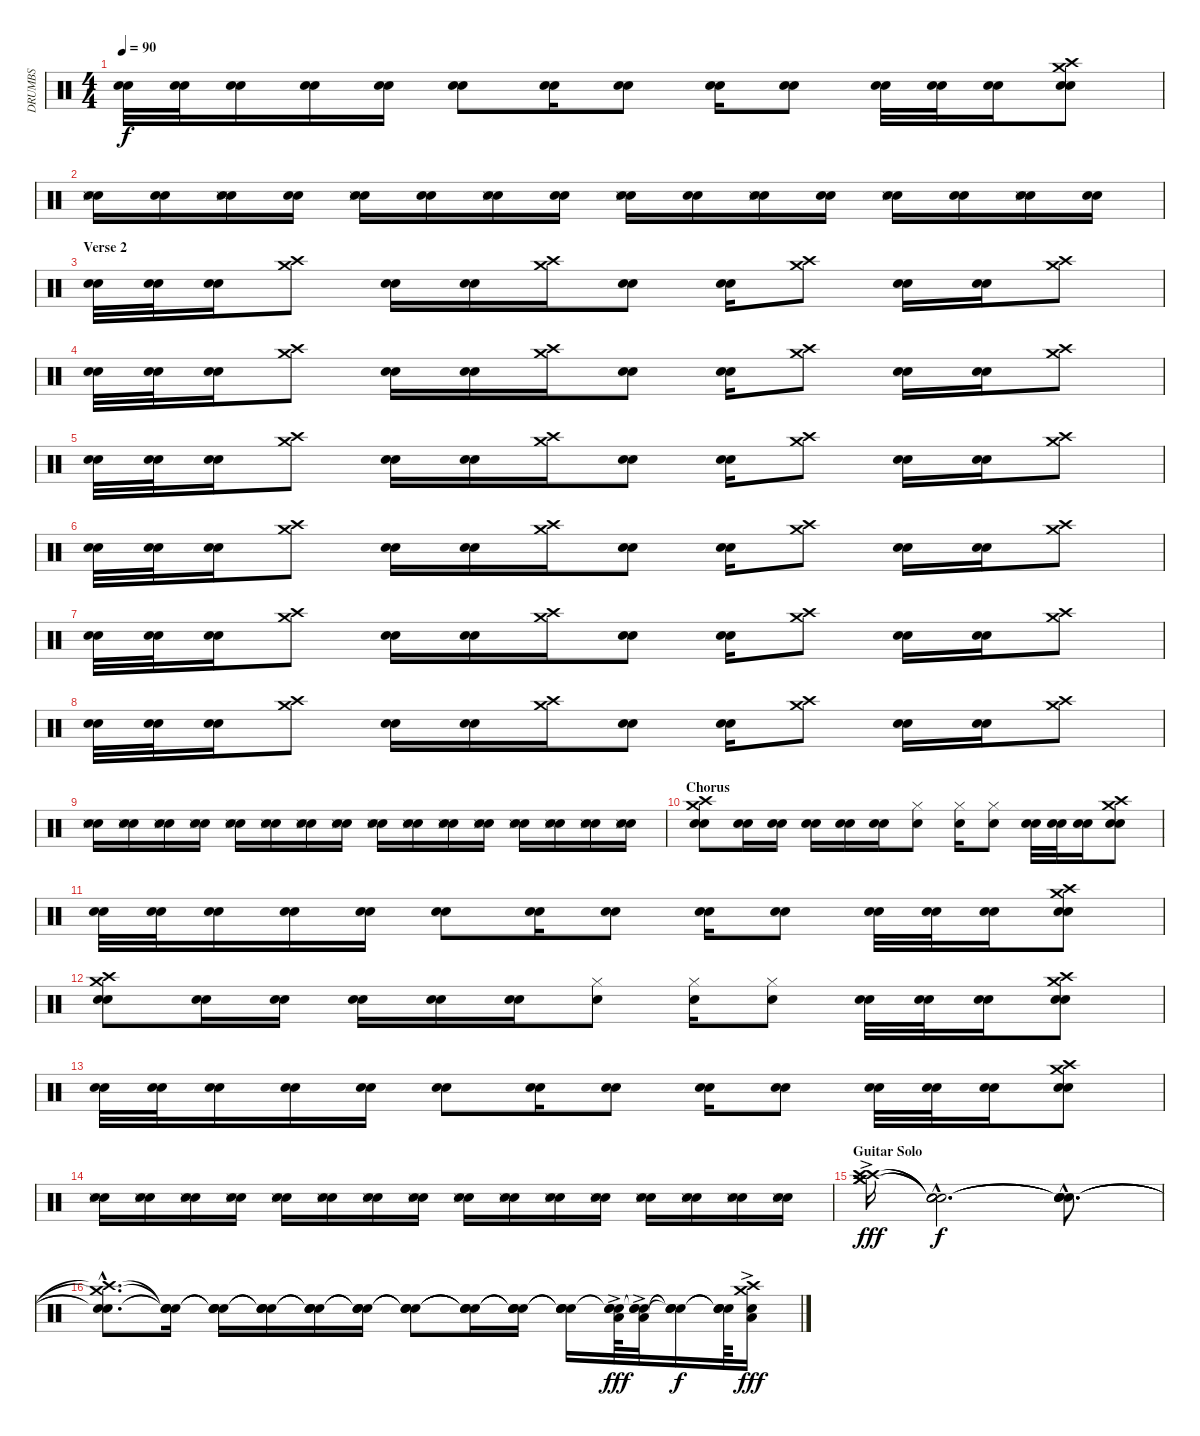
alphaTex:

\track ("DRUMBS" "DRUMBS") {instrument percussion}
\staff {score}
\articulation defaults
\ts (4 4)
\tempo 90
\clef neutral
\ks c
("Electric Snare (hit)" "Snare (hit) 2").32{dy f} ("Electric Snare (hit)" "Snare (hit) 2").32 ("Electric Snare (hit)" "Snare (hit) 2").16 ("Electric Snare (hit)" "Snare (hit) 2").16 ("Electric Snare (hit)" "Snare (hit) 2").16 ("Electric Snare (hit)" "Snare (hit) 2").8 ("Electric Snare (hit)" "Snare (hit) 2").16 ("Electric Snare (hit)" "Snare (hit) 2").8 ("Electric Snare (hit)" "Snare (hit) 2").16 ("Electric Snare (hit)" "Snare (hit) 2").8 ("Electric Snare (hit)" "Snare (hit) 2").32 ("Electric Snare (hit)" "Snare (hit) 2").32 ("Electric Snare (hit)" "Snare (hit) 2").16 ("Electric Snare (hit)" "Snare (hit) 2" "Crash medium (hit)" "Crash high (hit)").8 |
("Electric Snare (hit)" "Snare (side stick) 3" "Snare (hit) 2").16 ("Electric Snare (hit)" "Snare (hit) 2").16 ("Electric Snare (hit)" "Snare (side stick) 3" "Snare (hit) 2").16 ("Electric Snare (hit)" "Snare (hit) 2").16 ("Electric Snare (hit)" "Snare (side stick) 3" "Snare (hit) 2").16 ("Electric Snare (hit)" "Snare (hit) 2").16 ("Electric Snare (hit)" "Snare (side stick) 3" "Snare (hit) 2").16 ("Electric Snare (hit)" "Snare (hit) 2").16 ("Electric Snare (hit)" "Snare (side stick) 3" "Snare (hit) 2").16 ("Electric Snare (hit)" "Snare (hit) 2").16 ("Electric Snare (hit)" "Snare (side stick) 3" "Snare (hit) 2").16 ("Electric Snare (hit)" "Snare (hit) 2").16 ("Electric Snare (hit)" "Snare (side stick) 3" "Snare (hit) 2").16 ("Electric Snare (hit)" "Snare (hit) 2").16 ("Electric Snare (hit)" "Snare (side stick) 3" "Snare (hit) 2").16 ("Electric Snare (hit)" "Snare (hit) 2").16 |
\section ("" "Verse 2")
("Electric Snare (hit)" "Snare (hit) 2").32 ("Electric Snare (hit)" "Snare (hit) 2").32 ("Electric Snare (hit)" "Snare (hit) 2").16 ("Crash medium (hit)" "Crash high (hit)").8 ("Electric Snare (hit)" "Snare (hit) 2").16 ("Electric Snare (hit)" "Snare (hit) 2").16 ("Crash medium (hit)" "Crash high (hit)").16 ("Electric Snare (hit)" "Snare (hit) 2").8 ("Electric Snare (hit)" "Snare (hit) 2").16 ("Crash medium (hit)" "Crash high (hit)").8 ("Electric Snare (hit)" "Snare (hit) 2").16 ("Electric Snare (hit)" "Snare (hit) 2").16 ("Crash medium (hit)" "Crash high (hit)").8 |
("Electric Snare (hit)" "Snare (hit) 2").32 ("Electric Snare (hit)" "Snare (hit) 2").32 ("Electric Snare (hit)" "Snare (hit) 2").16 ("Crash medium (hit)" "Crash high (hit)").8 ("Electric Snare (hit)" "Snare (hit) 2").16 ("Electric Snare (hit)" "Snare (hit) 2").16 ("Crash medium (hit)" "Crash high (hit)").16 ("Electric Snare (hit)" "Snare (hit) 2").8 ("Electric Snare (hit)" "Snare (hit) 2").16 ("Crash medium (hit)" "Crash high (hit)").8 ("Electric Snare (hit)" "Snare (hit) 2").16 ("Electric Snare (hit)" "Snare (hit) 2").16 ("Crash medium (hit)" "Crash high (hit)").8 |
("Electric Snare (hit)" "Snare (hit) 2").32 ("Electric Snare (hit)" "Snare (hit) 2").32 ("Electric Snare (hit)" "Snare (hit) 2").16 ("Crash medium (hit)" "Crash high (hit)").8 ("Electric Snare (hit)" "Snare (hit) 2").16 ("Electric Snare (hit)" "Snare (hit) 2").16 ("Crash medium (hit)" "Crash high (hit)").16 ("Electric Snare (hit)" "Snare (hit) 2").8 ("Electric Snare (hit)" "Snare (hit) 2").16 ("Crash medium (hit)" "Crash high (hit)").8 ("Electric Snare (hit)" "Snare (hit) 2").16 ("Electric Snare (hit)" "Snare (hit) 2").16 ("Crash medium (hit)" "Crash high (hit)").8 |
("Electric Snare (hit)" "Snare (hit) 2").32 ("Electric Snare (hit)" "Snare (hit) 2").32 ("Electric Snare (hit)" "Snare (hit) 2").16 ("Crash medium (hit)" "Crash high (hit)").8 ("Electric Snare (hit)" "Snare (hit) 2").16 ("Electric Snare (hit)" "Snare (hit) 2").16 ("Crash medium (hit)" "Crash high (hit)").16 ("Electric Snare (hit)" "Snare (hit) 2").8 ("Electric Snare (hit)" "Snare (hit) 2").16 ("Crash medium (hit)" "Crash high (hit)").8 ("Electric Snare (hit)" "Snare (hit) 2").16 ("Electric Snare (hit)" "Snare (hit) 2").16 ("Crash medium (hit)" "Crash high (hit)").8 |
("Electric Snare (hit)" "Snare (hit) 2").32 ("Electric Snare (hit)" "Snare (hit) 2").32 ("Electric Snare (hit)" "Snare (hit) 2").16 ("Crash medium (hit)" "Crash high (hit)").8 ("Electric Snare (hit)" "Snare (hit) 2").16 ("Electric Snare (hit)" "Snare (hit) 2").16 ("Crash medium (hit)" "Crash high (hit)").16 ("Electric Snare (hit)" "Snare (hit) 2").8 ("Electric Snare (hit)" "Snare (hit) 2").16 ("Crash medium (hit)" "Crash high (hit)").8 ("Electric Snare (hit)" "Snare (hit) 2").16 ("Electric Snare (hit)" "Snare (hit) 2").16 ("Crash medium (hit)" "Crash high (hit)").8 |
("Electric Snare (hit)" "Snare (hit) 2").32 ("Electric Snare (hit)" "Snare (hit) 2").32 ("Electric Snare (hit)" "Snare (hit) 2").16 ("Crash medium (hit)" "Crash high (hit)").8 ("Electric Snare (hit)" "Snare (hit) 2").16 ("Electric Snare (hit)" "Snare (hit) 2").16 ("Crash medium (hit)" "Crash high (hit)").16 ("Electric Snare (hit)" "Snare (hit) 2").8 ("Electric Snare (hit)" "Snare (hit) 2").16 ("Crash medium (hit)" "Crash high (hit)").8 ("Electric Snare (hit)" "Snare (hit) 2").16 ("Electric Snare (hit)" "Snare (hit) 2").16 ("Crash medium (hit)" "Crash high (hit)").8 |
("Electric Snare (hit)" "Snare (side stick) 3" "Snare (hit) 2").16 ("Electric Snare (hit)" "Snare (side stick) 3" "Snare (hit) 2").16 ("Electric Snare (hit)" "Snare (side stick) 3" "Snare (hit) 2").16 ("Electric Snare (hit)" "Snare (side stick) 3" "Snare (hit) 2").16 ("Electric Snare (hit)" "Snare (side stick) 3" "Snare (hit) 2").16 ("Electric Snare (hit)" "Snare (side stick) 3" "Snare (hit) 2").16 ("Electric Snare (hit)" "Snare (side stick) 3" "Snare (hit) 2").16 ("Electric Snare (hit)" "Snare (side stick) 3" "Snare (hit) 2").16 ("Electric Snare (hit)" "Snare (side stick) 3" "Snare (hit) 2").16 ("Electric Snare (hit)" "Snare (side stick) 3" "Snare (hit) 2").16 ("Electric Snare (hit)" "Snare (side stick) 3" "Snare (hit) 2").16 ("Electric Snare (hit)" "Snare (side stick) 3" "Snare (hit) 2").16 ("Electric Snare (hit)" "Snare (side stick) 3" "Snare (hit) 2").16 ("Electric Snare (hit)" "Snare (side stick) 3" "Snare (hit) 2").16 ("Electric Snare (hit)" "Snare (side stick) 3" "Snare (hit) 2").16 ("Electric Snare (hit)" "Snare (side stick) 3" "Snare (hit) 2").16 |
\section ("" "Chorus")
("Electric Snare (hit)" "Snare (hit) 2" "Crash medium (hit)" "Crash high (hit)").8 ("Electric Snare (hit)" "Snare (hit) 2").16 ("Electric Snare (hit)" "Snare (hit) 2").16 ("Electric Snare (hit)" "Snare (hit) 2").16 ("Electric Snare (hit)" "Snare (hit) 2").16 ("Electric Snare (hit)" "Snare (hit) 2").16 ("Snare (hit) 2" "Hi-Hat (closed)").8 ("Snare (hit) 2" "Hi-Hat (closed)").16 ("Snare (hit) 2" "Hi-Hat (closed)").8 ("Electric Snare (hit)" "Snare (hit) 2").32 ("Electric Snare (hit)" "Snare (hit) 2").32 ("Electric Snare (hit)" "Snare (hit) 2").16 ("Electric Snare (hit)" "Snare (hit) 2" "Crash medium (hit)" "Crash high (hit)").8 |
("Electric Snare (hit)" "Snare (hit) 2").32 ("Electric Snare (hit)" "Snare (hit) 2").32 ("Electric Snare (hit)" "Snare (hit) 2").16 ("Electric Snare (hit)" "Snare (hit) 2").16 ("Electric Snare (hit)" "Snare (hit) 2").16 ("Electric Snare (hit)" "Snare (hit) 2").8 ("Electric Snare (hit)" "Snare (hit) 2").16 ("Electric Snare (hit)" "Snare (hit) 2").8 ("Electric Snare (hit)" "Snare (hit) 2").16 ("Electric Snare (hit)" "Snare (hit) 2").8 ("Electric Snare (hit)" "Snare (hit) 2").32 ("Electric Snare (hit)" "Snare (hit) 2").32 ("Electric Snare (hit)" "Snare (hit) 2").16 ("Electric Snare (hit)" "Snare (hit) 2" "Crash medium (hit)" "Crash high (hit)").8 |
("Electric Snare (hit)" "Snare (hit) 2" "Crash medium (hit)" "Crash high (hit)").8 ("Electric Snare (hit)" "Snare (hit) 2").16 ("Electric Snare (hit)" "Snare (hit) 2").16 ("Electric Snare (hit)" "Snare (hit) 2").16 ("Electric Snare (hit)" "Snare (hit) 2").16 ("Electric Snare (hit)" "Snare (hit) 2").16 ("Snare (hit) 2" "Hi-Hat (closed)").8 ("Snare (hit) 2" "Hi-Hat (closed)").16 ("Snare (hit) 2" "Hi-Hat (closed)").8 ("Electric Snare (hit)" "Snare (hit) 2").32 ("Electric Snare (hit)" "Snare (hit) 2").32 ("Electric Snare (hit)" "Snare (hit) 2").16 ("Electric Snare (hit)" "Snare (hit) 2" "Crash medium (hit)" "Crash high (hit)").8 |
("Electric Snare (hit)" "Snare (hit) 2").32 ("Electric Snare (hit)" "Snare (hit) 2").32 ("Electric Snare (hit)" "Snare (hit) 2").16 ("Electric Snare (hit)" "Snare (hit) 2").16 ("Electric Snare (hit)" "Snare (hit) 2").16 ("Electric Snare (hit)" "Snare (hit) 2").8 ("Electric Snare (hit)" "Snare (hit) 2").16 ("Electric Snare (hit)" "Snare (hit) 2").8 ("Electric Snare (hit)" "Snare (hit) 2").16 ("Electric Snare (hit)" "Snare (hit) 2").8 ("Electric Snare (hit)" "Snare (hit) 2").32 ("Electric Snare (hit)" "Snare (hit) 2").32 ("Electric Snare (hit)" "Snare (hit) 2").16 ("Electric Snare (hit)" "Snare (hit) 2" "Crash medium (hit)" "Crash high (hit)").8 |
("Electric Snare (hit)" "Snare (side stick) 3" "Snare (hit) 2").16 ("Electric Snare (hit)" "Snare (side stick) 3" "Snare (hit) 2").16 ("Electric Snare (hit)" "Snare (side stick) 3" "Snare (hit) 2").16 ("Electric Snare (hit)" "Snare (side stick) 3" "Snare (hit) 2").16 ("Electric Snare (hit)" "Snare (side stick) 3" "Snare (hit) 2").16 ("Electric Snare (hit)" "Snare (side stick) 3" "Snare (hit) 2").16 ("Electric Snare (hit)" "Snare (side stick) 3" "Snare (hit) 2").16 ("Electric Snare (hit)" "Snare (side stick) 3" "Snare (hit) 2").16 ("Electric Snare (hit)" "Snare (side stick) 3" "Snare (hit) 2").16 ("Electric Snare (hit)" "Snare (side stick) 3" "Snare (hit) 2").16 ("Electric Snare (hit)" "Snare (side stick) 3" "Snare (hit) 2").16 ("Electric Snare (hit)" "Snare (side stick) 3" "Snare (hit) 2").16 ("Electric Snare (hit)" "Snare (side stick) 3" "Snare (hit) 2").16 ("Electric Snare (hit)" "Snare (side stick) 3" "Snare (hit) 2").16 ("Electric Snare (hit)" "Snare (side stick) 3" "Snare (hit) 2").16 ("Electric Snare (hit)" "Snare (side stick) 3" "Snare (hit) 2").16 |
\section ("" "Guitar Solo")
("Crash high (hit)"{ac} "Crash medium (hit)"{ac} "Crash high (hit)"{ac} "Crash medium (hit)"{ac}).16{dy fff volume 16} ("Snare (hit)"{hac t} "Snare (hit)"{hac t} "Snare (hit)"{hac t} "Snare (hit)"{hac t}).2{d dy f} ("Snare (hit)"{hac t} "Snare (hit)"{hac t} "Snare (hit)"{hac t} "Snare (hit)"{hac t}).8{d} |
("Crash high (hit)"{hac t} "Crash medium (hit)"{hac t} "Snare (hit)"{hac t} "Snare (hit)"{hac t}).8{d} ("Snare (hit)"{t} "Snare (hit)"{t} "Snare (hit)"{t} "Snare (hit)"{t}).16 ("Snare (hit)"{t} "Snare (hit)"{t} "Snare (hit)"{t} "Snare (hit)"{t}).16 ("Snare (hit)"{t} "Snare (hit)"{t} "Snare (hit)"{t} "Snare (hit)"{t}).16 ("Snare (hit)"{t} "Snare (hit)"{t} "Snare (hit)"{t} "Snare (hit)"{t}).16 ("Snare (hit)"{t} "Snare (hit)"{t} "Snare (hit)"{t} "Snare (hit)"{t}).16 ("Snare (hit)"{t} "Snare (hit)"{t} "Snare (hit)"{t} "Snare (hit)"{t}).8 ("Snare (hit)"{t} "Snare (hit)"{t} "Snare (hit)"{t} "Snare (hit)"{t}).16 ("Snare (hit)"{t} "Snare (hit)"{t} "Snare (hit)"{t} "Snare (hit)"{t}).16 ("Snare (hit)"{t} "Snare (hit)"{t} "Snare (hit)"{t} "Snare (hit)"{t}).16 ("Electric Snare (hit)"{ac} "Low Tom (hit)"{ac} "Snare (hit)"{t} "Snare (hit)"{t}).64{dy fff} ("Electric Snare (hit)"{ac} "Low Tom (hit)"{ac} "Snare (hit)"{t} "Snare (hit)"{t}).32 ("Snare (hit)"{t} "Snare (hit)"{t} "Snare (hit)"{t} "Snare (hit)"{t}).16{dy f} ("Snare (hit)"{t} "Snare (hit)"{t} "Snare (hit)"{t} "Snare (hit)"{t}).64 ("Electric Snare (hit)"{ac} "Low Tom (hit)"{ac} "Crash high (hit)" "Crash medium (hit)").16{dy fff}
